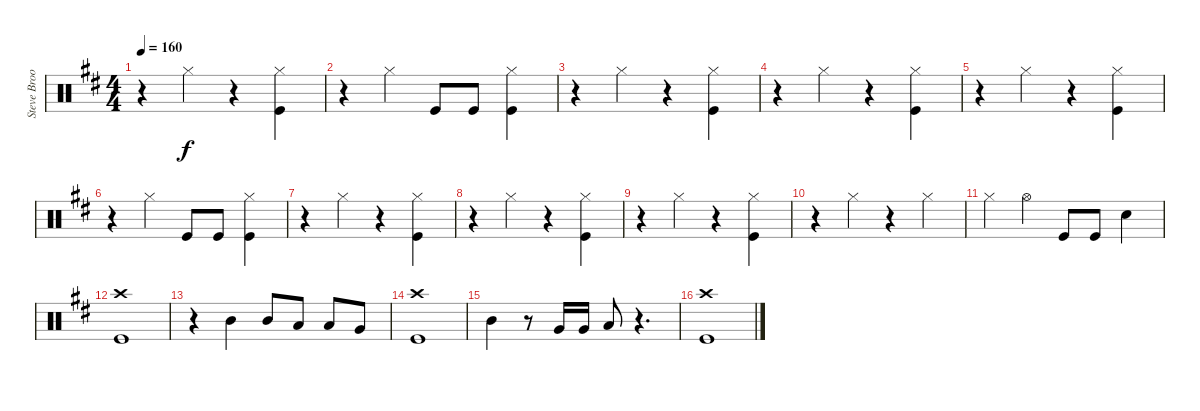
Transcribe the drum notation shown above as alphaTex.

\track ("Steve Brookins Drums" "Steve Broo") {instrument percussion}
\staff {score}
\articulation defaults
\ts (4 4)
\tempo 160
\clef neutral
\ks d
r.4{dy f} "Hi-Hat (closed)".4 r.4 ("Hi-Hat (closed)" "Kick (hit)").4 |
r.4 "Hi-Hat (closed)".4 "Kick (hit)".8 "Kick (hit)".8 ("Hi-Hat (closed)" "Kick (hit)").4 |
r.4 "Hi-Hat (closed)".4 r.4 ("Hi-Hat (closed)" "Kick (hit)").4 |
r.4 "Hi-Hat (closed)".4 r.4 ("Hi-Hat (closed)" "Kick (hit)").4 |
r.4 "Hi-Hat (closed)".4 r.4 ("Hi-Hat (closed)" "Kick (hit)").4 |
r.4 "Hi-Hat (closed)".4 "Kick (hit)".8 "Kick (hit)".8 ("Hi-Hat (closed)" "Kick (hit)").4 |
r.4 "Hi-Hat (closed)".4 r.4 ("Hi-Hat (closed)" "Kick (hit)").4 |
r.4 "Hi-Hat (closed)".4 r.4 ("Hi-Hat (closed)" "Kick (hit)").4 |
r.4 "Hi-Hat (closed)".4 r.4 ("Hi-Hat (closed)" "Kick (hit)").4 |
r.4 "Hi-Hat (closed)".4 r.4 "Hi-Hat (closed)".4 |
"Hi-Hat (closed)".4 "Hi-Hat (open)".4 "Kick (hit)".8 "Kick (hit)".8 "Snare (hit) 2".4 |
("Crash high (hit)" "Kick (hit)").1 |
r.4 "Mid Tom (hit)".4 "Mid Tom (hit)".8 "Low Tom (hit)".8 "Low Tom (hit)".8 "Very Low Tom (hit)".8 |
("Crash high (hit)" "Kick (hit)").1 |
"Mid Tom (hit)".4 r.8 "Very Low Tom (hit)".16 "Very Low Tom (hit)".16 "Low Floor Tom (hit)".8 r.4{d} |
("Crash high (hit)" "Kick (hit)").1
